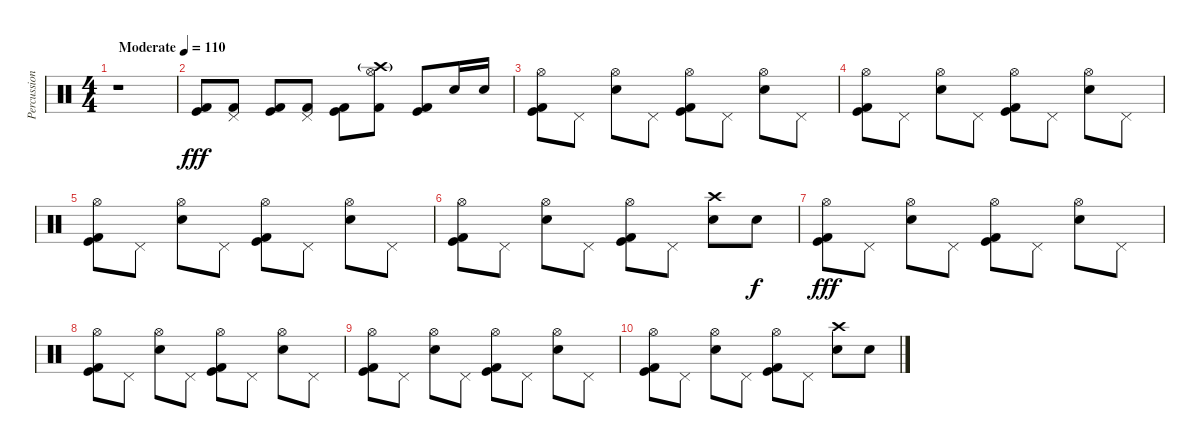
\track ("Percussion" "Percussion") {instrument percussion}
\staff {score}
\articulation defaults
\ts (4 4)
\tempo (110 "Moderate")
\clef neutral
\ks c
r.1{dy fff} |
("Kick (hit)" "Kick (hit) 2").8 ("Pedal Hi-Hat (hit)" "Kick (hit) 2").8 ("Kick (hit)" "Kick (hit) 2").8 ("Pedal Hi-Hat (hit)" "Kick (hit) 2").8 ("Kick (hit)" "Kick (hit) 2").8 ("Crash high (hit)"{g} "Hi-Hat (open)" "Kick (hit) 2").8 ("Kick (hit)" "Kick (hit) 2").8 "Electric Snare (hit)".16 "Electric Snare (hit)".16 |
("Hi-Hat (open)" "Kick (hit)" "Kick (hit) 2").8 "Pedal Hi-Hat (hit)".8 ("Hi-Hat (open)" "Electric Snare (hit)").8 "Pedal Hi-Hat (hit)".8 ("Hi-Hat (open)" "Kick (hit)" "Kick (hit) 2").8 "Pedal Hi-Hat (hit)".8 ("Hi-Hat (open)" "Electric Snare (hit)").8 "Pedal Hi-Hat (hit)".8 |
("Hi-Hat (open)" "Kick (hit)" "Kick (hit) 2").8 "Pedal Hi-Hat (hit)".8 ("Hi-Hat (open)" "Electric Snare (hit)").8 "Pedal Hi-Hat (hit)".8 ("Hi-Hat (open)" "Kick (hit)" "Kick (hit) 2").8 "Pedal Hi-Hat (hit)".8 ("Hi-Hat (open)" "Electric Snare (hit)").8 "Pedal Hi-Hat (hit)".8 |
("Hi-Hat (open)" "Kick (hit)" "Kick (hit) 2").8 "Pedal Hi-Hat (hit)".8 ("Hi-Hat (open)" "Electric Snare (hit)").8 "Pedal Hi-Hat (hit)".8 ("Hi-Hat (open)" "Kick (hit)" "Kick (hit) 2").8 "Pedal Hi-Hat (hit)".8 ("Hi-Hat (open)" "Electric Snare (hit)").8 "Pedal Hi-Hat (hit)".8 |
("Hi-Hat (open)" "Kick (hit)" "Kick (hit) 2").8 "Pedal Hi-Hat (hit)".8 ("Hi-Hat (open)" "Electric Snare (hit)").8 "Pedal Hi-Hat (hit)".8 ("Hi-Hat (open)" "Kick (hit)" "Kick (hit) 2").8 "Pedal Hi-Hat (hit)".8 ("Crash high (hit)" "Electric Snare (hit)").8 "Electric Snare (hit)".8{dy f} |
("Hi-Hat (open)" "Kick (hit)" "Kick (hit) 2").8{dy fff} "Pedal Hi-Hat (hit)".8 ("Hi-Hat (open)" "Electric Snare (hit)").8 "Pedal Hi-Hat (hit)".8 ("Hi-Hat (open)" "Kick (hit)" "Kick (hit) 2").8 "Pedal Hi-Hat (hit)".8 ("Hi-Hat (open)" "Electric Snare (hit)").8 "Pedal Hi-Hat (hit)".8 |
("Hi-Hat (open)" "Kick (hit)" "Kick (hit) 2").8 "Pedal Hi-Hat (hit)".8 ("Hi-Hat (open)" "Electric Snare (hit)").8 "Pedal Hi-Hat (hit)".8 ("Hi-Hat (open)" "Kick (hit)" "Kick (hit) 2").8 "Pedal Hi-Hat (hit)".8 ("Hi-Hat (open)" "Electric Snare (hit)").8 "Pedal Hi-Hat (hit)".8 |
("Hi-Hat (open)" "Kick (hit)" "Kick (hit) 2").8 "Pedal Hi-Hat (hit)".8 ("Hi-Hat (open)" "Electric Snare (hit)").8 "Pedal Hi-Hat (hit)".8 ("Hi-Hat (open)" "Kick (hit)" "Kick (hit) 2").8 "Pedal Hi-Hat (hit)".8 ("Hi-Hat (open)" "Electric Snare (hit)").8 "Pedal Hi-Hat (hit)".8 |
("Hi-Hat (open)" "Kick (hit)" "Kick (hit) 2").8 "Pedal Hi-Hat (hit)".8 ("Hi-Hat (open)" "Electric Snare (hit)").8 "Pedal Hi-Hat (hit)".8 ("Hi-Hat (open)" "Kick (hit)" "Kick (hit) 2").8 "Pedal Hi-Hat (hit)".8 ("Crash high (hit)" "Electric Snare (hit)").8 "Electric Snare (hit)".8
